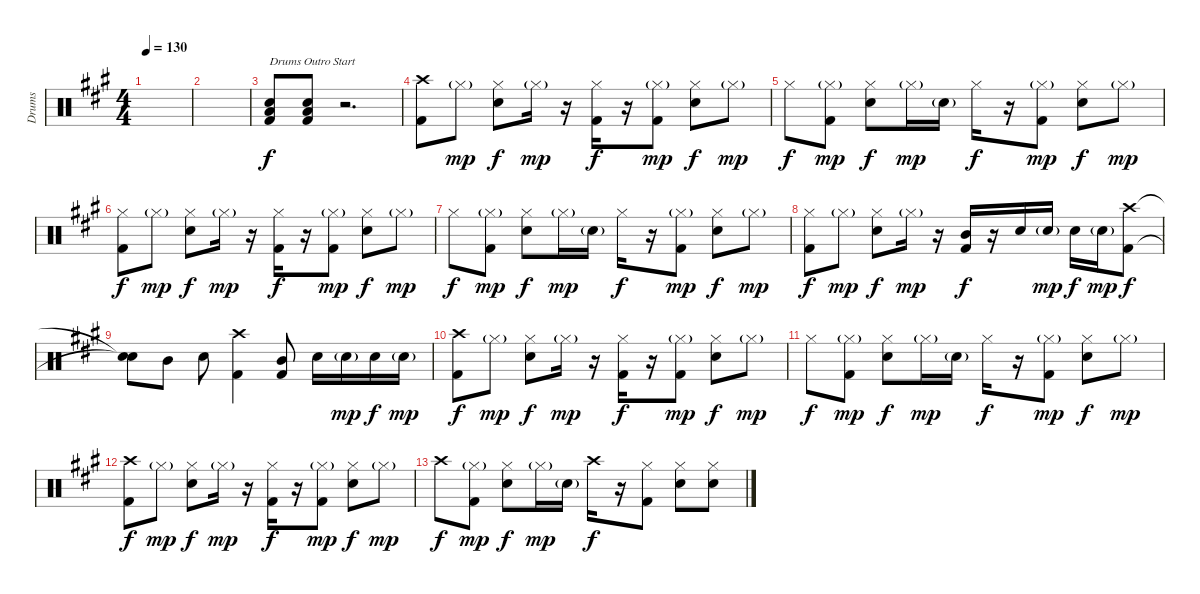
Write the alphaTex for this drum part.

\track ("Drums" "Drums") {instrument percussion}
\staff {score}
\articulation defaults
\ts (4 4)
\tempo 130
\clef neutral
\ks a
|
|
("Electric Snare (hit)" "Low Floor Tom (hit)" "Kick (hit) 2").8{txt "Drums Outro Start"} ("Electric Snare (hit)" "Low Floor Tom (hit)" "Kick (hit) 2").8 r.2{d} |
("Crash high (hit)" "Kick (hit) 2").8 "Hi-Hat (closed)"{g}.8{dy mp} ("Hi-Hat (closed)" "Electric Snare (hit)").8{dy f} "Hi-Hat (closed)"{g}.16{dy mp} r.16 ("Hi-Hat (closed)" "Kick (hit) 2").16{dy f} r.16 ("Hi-Hat (closed)"{g} "Kick (hit) 2").8{dy mp} ("Hi-Hat (closed)" "Electric Snare (hit)").8{dy f} "Hi-Hat (closed)"{g}.8{dy mp} |
"Hi-Hat (closed)".8{dy f} ("Hi-Hat (closed)"{g} "Kick (hit) 2").8{dy mp} ("Hi-Hat (closed)" "Electric Snare (hit)").8{dy f} "Hi-Hat (closed)"{g}.16{dy mp} "Electric Snare (hit)"{g}.16 "Hi-Hat (closed)".16{dy f} r.16 ("Hi-Hat (closed)"{g} "Kick (hit) 2").8{dy mp} ("Hi-Hat (closed)" "Electric Snare (hit)").8{dy f} "Hi-Hat (closed)"{g}.8{dy mp} |
("Hi-Hat (closed)" "Kick (hit) 2").8{dy f} "Hi-Hat (closed)"{g}.8{dy mp} ("Hi-Hat (closed)" "Electric Snare (hit)").8{dy f} "Hi-Hat (closed)"{g}.16{dy mp} r.16 ("Hi-Hat (closed)" "Kick (hit) 2").16{dy f} r.16 ("Hi-Hat (closed)"{g} "Kick (hit) 2").8{dy mp} ("Hi-Hat (closed)" "Electric Snare (hit)").8{dy f} "Hi-Hat (closed)"{g}.8{dy mp} |
"Hi-Hat (closed)".8{dy f} ("Hi-Hat (closed)"{g} "Kick (hit) 2").8{dy mp} ("Hi-Hat (closed)" "Electric Snare (hit)").8{dy f} "Hi-Hat (closed)"{g}.16{dy mp} "Electric Snare (hit)"{g}.16 "Hi-Hat (closed)".16{dy f} r.16 ("Hi-Hat (closed)"{g} "Kick (hit) 2").8{dy mp} ("Hi-Hat (closed)" "Electric Snare (hit)").8{dy f} "Hi-Hat (closed)"{g}.8{dy mp} |
("Hi-Hat (closed)" "Kick (hit) 2").8{dy f} "Hi-Hat (closed)"{g}.8{dy mp} ("Hi-Hat (closed)" "Electric Snare (hit)").8{dy f} "Hi-Hat (closed)"{g}.16{dy mp} r.16 ("Mid Tom (hit)" "Kick (hit) 2").16{dy f} r.16 "Electric Snare (hit)".16 "Electric Snare (hit)"{g}.16{dy mp} "Electric Snare (hit)".16{dy f} "Electric Snare (hit)"{g}.16{dy mp} ("Crash high (hit)" "Kick (hit) 2").8{dy f} |
("Snare (hit)"{t} "Snare (hit)"{t}).8 "Mid Tom (hit)".8 "Electric Snare (hit)".8 ("Crash high (hit)" "Kick (hit) 2").4 ("Mid Tom (hit)" "Kick (hit) 2").8 "Electric Snare (hit)".16 "Electric Snare (hit)"{g}.16{dy mp} "Electric Snare (hit)".16{dy f} "Electric Snare (hit)"{g}.16{dy mp} |
("Crash high (hit)" "Kick (hit) 2").8{dy f} "Hi-Hat (closed)"{g}.8{dy mp} ("Hi-Hat (closed)" "Electric Snare (hit)").8{dy f} "Hi-Hat (closed)"{g}.16{dy mp} r.16 ("Hi-Hat (closed)" "Kick (hit) 2").16{dy f} r.16 ("Hi-Hat (closed)"{g} "Kick (hit) 2").8{dy mp} ("Hi-Hat (closed)" "Electric Snare (hit)").8{dy f} "Hi-Hat (closed)"{g}.8{dy mp} |
"Hi-Hat (closed)".8{dy f} ("Hi-Hat (closed)"{g} "Kick (hit) 2").8{dy mp} ("Hi-Hat (closed)" "Electric Snare (hit)").8{dy f} "Hi-Hat (closed)"{g}.16{dy mp} "Electric Snare (hit)"{g}.16 "Hi-Hat (closed)".16{dy f} r.16 ("Hi-Hat (closed)"{g} "Kick (hit) 2").8{dy mp} ("Hi-Hat (closed)" "Electric Snare (hit)").8{dy f} "Hi-Hat (closed)"{g}.8{dy mp} |
("Crash high (hit)" "Kick (hit) 2").8{dy f} "Hi-Hat (closed)"{g}.8{dy mp} ("Hi-Hat (closed)" "Electric Snare (hit)").8{dy f} "Hi-Hat (closed)"{g}.16{dy mp} r.16 ("Hi-Hat (closed)" "Kick (hit) 2").16{dy f} r.16 ("Hi-Hat (closed)"{g} "Kick (hit) 2").8{dy mp} ("Hi-Hat (closed)" "Electric Snare (hit)").8{dy f} "Hi-Hat (closed)"{g}.8{dy mp} |
"Crash high (hit)".8{dy f} ("Hi-Hat (closed)"{g} "Kick (hit) 2").8{dy mp} ("Hi-Hat (closed)" "Electric Snare (hit)").8{dy f} "Hi-Hat (closed)"{g}.16{dy mp} "Electric Snare (hit)"{g}.16 "Crash high (hit)".16{dy f} r.16 ("Hi-Hat (closed)" "Kick (hit) 2").8 ("Hi-Hat (closed)" "Electric Snare (hit)").8 ("Hi-Hat (closed)" "Electric Snare (hit)").8
